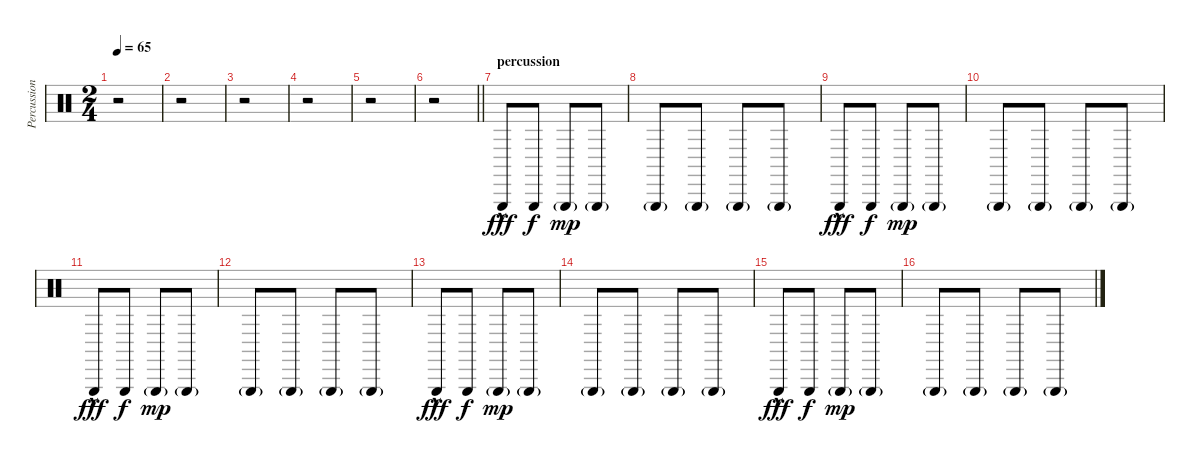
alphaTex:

\track ("Percussions" "Percussion") {instrument percussion}
\staff {score}
\articulation defaults
\ts (2 4)
\tempo 65
\clef neutral
\ks c
r.2{dy fff} |
r.2 |
r.2 |
r.2 |
r.2 |
\barLineRight lightlight
r.2 |
\section ("" "percussion")
"Triangle (hit)"{hac}.8 "Triangle (hit)".8{dy f} "Triangle (hit)"{g}.8{dy mp} "Triangle (hit)"{g}.8 |
"Triangle (hit)"{g}.8 "Triangle (hit)"{g}.8 "Triangle (hit)"{g}.8 "Triangle (hit)"{g}.8 |
"Triangle (hit)"{hac}.8{dy fff} "Triangle (hit)".8{dy f} "Triangle (hit)"{g}.8{dy mp} "Triangle (hit)"{g}.8 |
"Triangle (hit)"{g}.8 "Triangle (hit)"{g}.8 "Triangle (hit)"{g}.8 "Triangle (hit)"{g}.8 |
"Triangle (hit)"{hac}.8{dy fff} "Triangle (hit)".8{dy f} "Triangle (hit)"{g}.8{dy mp} "Triangle (hit)"{g}.8 |
"Triangle (hit)"{g}.8 "Triangle (hit)"{g}.8 "Triangle (hit)"{g}.8 "Triangle (hit)"{g}.8 |
"Triangle (hit)"{hac}.8{dy fff} "Triangle (hit)".8{dy f} "Triangle (hit)"{g}.8{dy mp} "Triangle (hit)"{g}.8 |
"Triangle (hit)"{g}.8 "Triangle (hit)"{g}.8 "Triangle (hit)"{g}.8 "Triangle (hit)"{g}.8 |
"Triangle (hit)"{hac}.8{dy fff} "Triangle (hit)".8{dy f} "Triangle (hit)"{g}.8{dy mp} "Triangle (hit)"{g}.8 |
"Triangle (hit)"{g}.8 "Triangle (hit)"{g}.8 "Triangle (hit)"{g}.8 "Triangle (hit)"{g}.8
